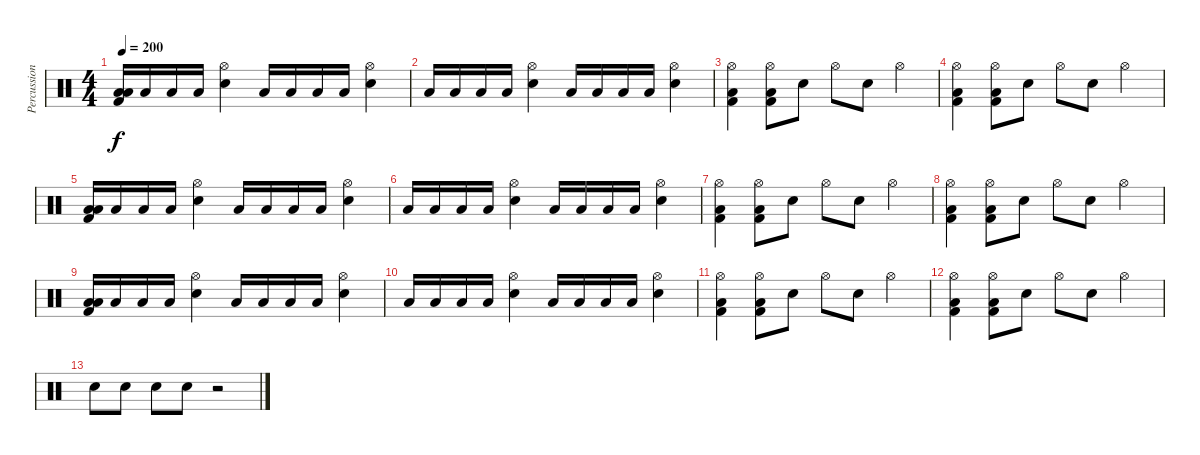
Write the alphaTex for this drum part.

\track ("Percussions" "Percussion") {instrument percussion}
\staff {score}
\articulation defaults
\ts (4 4)
\tempo 200
\clef neutral
\ks c
("Kick (hit) 2" "Low Floor Tom (hit)" "Low Tom (hit)").16{dy f} "Low Tom (hit)".16 "Low Tom (hit)".16 "Low Tom (hit)".16 ("Snare (hit) 2" "Hi-Hat (open)").4 "Low Tom (hit)".16 "Low Tom (hit)".16 "Low Tom (hit)".16 "Low Tom (hit)".16 ("Snare (hit) 2" "Hi-Hat (open)").4 |
"Low Tom (hit)".16 "Low Tom (hit)".16 "Low Tom (hit)".16 "Low Tom (hit)".16 ("Snare (hit) 2" "Hi-Hat (open)").4 "Low Tom (hit)".16 "Low Tom (hit)".16 "Low Tom (hit)".16 "Low Tom (hit)".16 ("Snare (hit) 2" "Hi-Hat (open)").4 |
("Kick (hit) 2" "Low Floor Tom (hit)" "Hi-Hat (open)").4 ("Kick (hit) 2" "Low Floor Tom (hit)" "Hi-Hat (open)").8 "Snare (hit) 2".8 "Hi-Hat (open)".8 "Snare (hit) 2".8 "Hi-Hat (open)".4 |
("Kick (hit) 2" "Low Floor Tom (hit)" "Hi-Hat (open)").4 ("Kick (hit) 2" "Low Floor Tom (hit)" "Hi-Hat (open)").8 "Snare (hit) 2".8 "Hi-Hat (open)".8 "Snare (hit) 2".8 "Hi-Hat (open)".4 |
("Kick (hit) 2" "Low Floor Tom (hit)" "Low Tom (hit)").16 "Low Tom (hit)".16 "Low Tom (hit)".16 "Low Tom (hit)".16 ("Snare (hit) 2" "Hi-Hat (open)").4 "Low Tom (hit)".16 "Low Tom (hit)".16 "Low Tom (hit)".16 "Low Tom (hit)".16 ("Snare (hit) 2" "Hi-Hat (open)").4 |
"Low Tom (hit)".16 "Low Tom (hit)".16 "Low Tom (hit)".16 "Low Tom (hit)".16 ("Snare (hit) 2" "Hi-Hat (open)").4 "Low Tom (hit)".16 "Low Tom (hit)".16 "Low Tom (hit)".16 "Low Tom (hit)".16 ("Snare (hit) 2" "Hi-Hat (open)").4 |
("Kick (hit) 2" "Low Floor Tom (hit)" "Hi-Hat (open)").4 ("Kick (hit) 2" "Low Floor Tom (hit)" "Hi-Hat (open)").8 "Snare (hit) 2".8 "Hi-Hat (open)".8 "Snare (hit) 2".8 "Hi-Hat (open)".4 |
("Kick (hit) 2" "Low Floor Tom (hit)" "Hi-Hat (open)").4 ("Kick (hit) 2" "Low Floor Tom (hit)" "Hi-Hat (open)").8 "Snare (hit) 2".8 "Hi-Hat (open)".8 "Snare (hit) 2".8 "Hi-Hat (open)".4 |
("Kick (hit) 2" "Low Floor Tom (hit)" "Low Tom (hit)").16 "Low Tom (hit)".16 "Low Tom (hit)".16 "Low Tom (hit)".16 ("Snare (hit) 2" "Hi-Hat (open)").4 "Low Tom (hit)".16 "Low Tom (hit)".16 "Low Tom (hit)".16 "Low Tom (hit)".16 ("Snare (hit) 2" "Hi-Hat (open)").4 |
"Low Tom (hit)".16 "Low Tom (hit)".16 "Low Tom (hit)".16 "Low Tom (hit)".16 ("Snare (hit) 2" "Hi-Hat (open)").4 "Low Tom (hit)".16 "Low Tom (hit)".16 "Low Tom (hit)".16 "Low Tom (hit)".16 ("Snare (hit) 2" "Hi-Hat (open)").4 |
("Kick (hit) 2" "Low Floor Tom (hit)" "Hi-Hat (open)").4 ("Kick (hit) 2" "Low Floor Tom (hit)" "Hi-Hat (open)").8 "Snare (hit) 2".8 "Hi-Hat (open)".8 "Snare (hit) 2".8 "Hi-Hat (open)".4 |
("Kick (hit) 2" "Low Floor Tom (hit)" "Hi-Hat (open)").4 ("Kick (hit) 2" "Low Floor Tom (hit)" "Hi-Hat (open)").8 "Snare (hit) 2".8 "Hi-Hat (open)".8 "Snare (hit) 2".8 "Hi-Hat (open)".4 |
"Snare (hit) 2".8 "Snare (hit) 2".8 "Snare (hit) 2".8 "Snare (hit) 2".8 r.2
